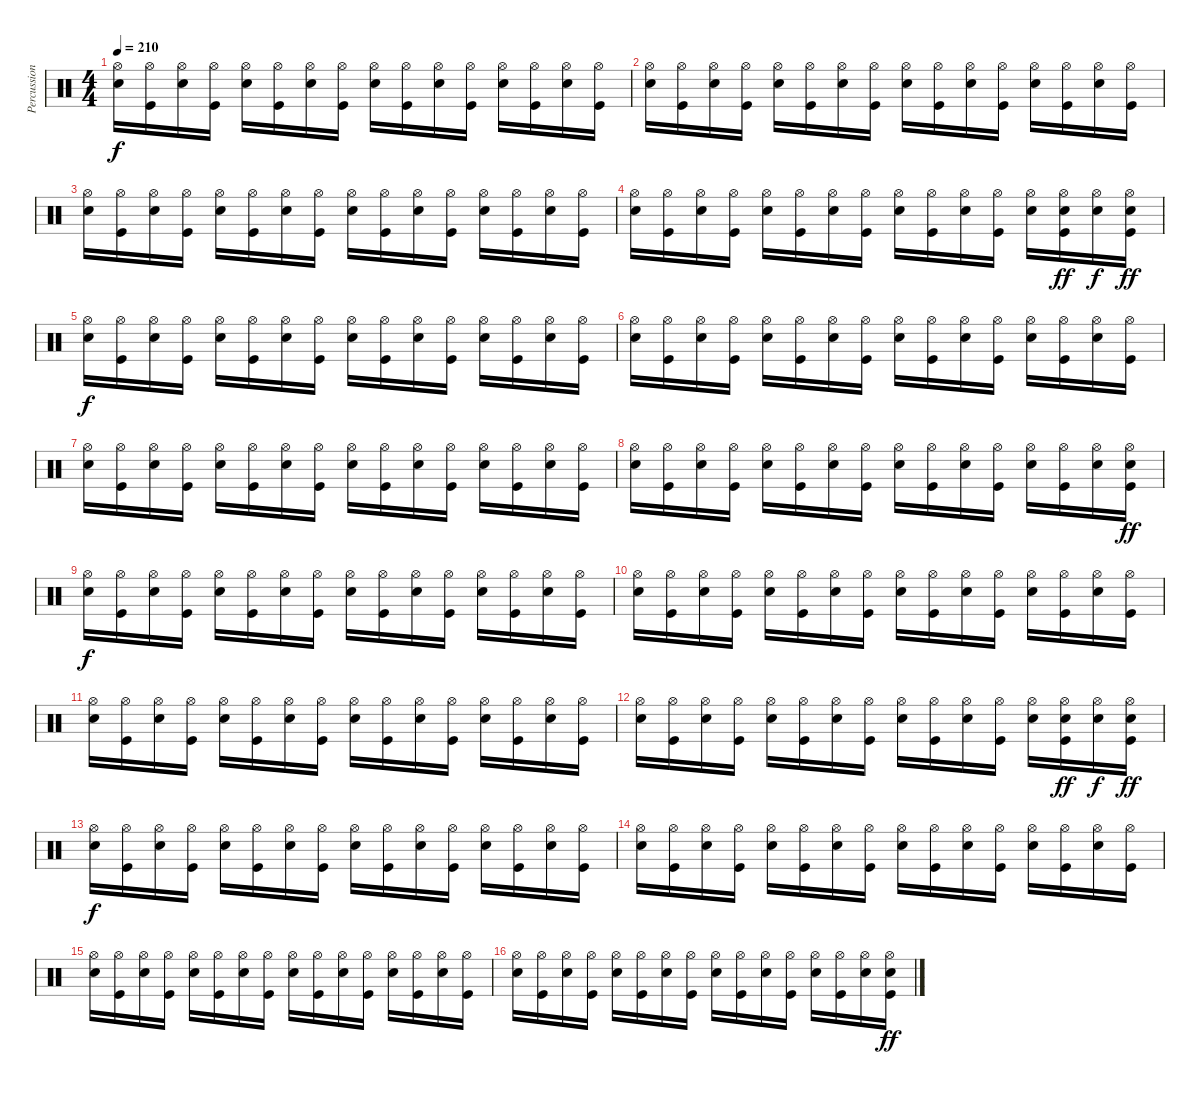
\track ("Percussion" "Percussion") {instrument percussion}
\staff {score}
\articulation defaults
\ts (4 4)
\tempo 210
\clef neutral
\ks c
("Hi-Hat (open)" "Snare (hit) 2").16{dy f} ("Hi-Hat (open)" "Kick (hit)").16 ("Hi-Hat (open)" "Snare (hit) 2").16 ("Hi-Hat (open)" "Kick (hit)").16 ("Hi-Hat (open)" "Snare (hit) 2").16 ("Hi-Hat (open)" "Kick (hit)").16 ("Hi-Hat (open)" "Snare (hit) 2").16 ("Hi-Hat (open)" "Kick (hit)").16 ("Hi-Hat (open)" "Snare (hit) 2").16 ("Hi-Hat (open)" "Kick (hit)").16 ("Hi-Hat (open)" "Snare (hit) 2").16 ("Hi-Hat (open)" "Kick (hit)").16 ("Hi-Hat (open)" "Snare (hit) 2").16 ("Hi-Hat (open)" "Kick (hit)").16 ("Hi-Hat (open)" "Snare (hit) 2").16 ("Hi-Hat (open)" "Kick (hit)").16 |
("Hi-Hat (open)" "Snare (hit) 2").16 ("Hi-Hat (open)" "Kick (hit)").16 ("Hi-Hat (open)" "Snare (hit) 2").16 ("Hi-Hat (open)" "Kick (hit)").16 ("Hi-Hat (open)" "Snare (hit) 2").16 ("Hi-Hat (open)" "Kick (hit)").16 ("Hi-Hat (open)" "Snare (hit) 2").16 ("Hi-Hat (open)" "Kick (hit)").16 ("Hi-Hat (open)" "Snare (hit) 2").16 ("Hi-Hat (open)" "Kick (hit)").16 ("Hi-Hat (open)" "Snare (hit) 2").16 ("Hi-Hat (open)" "Kick (hit)").16 ("Hi-Hat (open)" "Snare (hit) 2").16 ("Hi-Hat (open)" "Kick (hit)").16 ("Hi-Hat (open)" "Snare (hit) 2").16 ("Hi-Hat (open)" "Kick (hit)").16 |
("Hi-Hat (open)" "Snare (hit) 2").16 ("Hi-Hat (open)" "Kick (hit)").16 ("Hi-Hat (open)" "Snare (hit) 2").16 ("Hi-Hat (open)" "Kick (hit)").16 ("Hi-Hat (open)" "Snare (hit) 2").16 ("Hi-Hat (open)" "Kick (hit)").16 ("Hi-Hat (open)" "Snare (hit) 2").16 ("Hi-Hat (open)" "Kick (hit)").16 ("Hi-Hat (open)" "Snare (hit) 2").16 ("Hi-Hat (open)" "Kick (hit)").16 ("Hi-Hat (open)" "Snare (hit) 2").16 ("Hi-Hat (open)" "Kick (hit)").16 ("Hi-Hat (open)" "Snare (hit) 2").16 ("Hi-Hat (open)" "Kick (hit)").16 ("Hi-Hat (open)" "Snare (hit) 2").16 ("Hi-Hat (open)" "Kick (hit)").16 |
("Hi-Hat (open)" "Snare (hit) 2").16 ("Hi-Hat (open)" "Kick (hit)").16 ("Hi-Hat (open)" "Snare (hit) 2").16 ("Hi-Hat (open)" "Kick (hit)").16 ("Hi-Hat (open)" "Snare (hit) 2").16 ("Hi-Hat (open)" "Kick (hit)").16 ("Hi-Hat (open)" "Snare (hit) 2").16 ("Hi-Hat (open)" "Kick (hit)").16 ("Hi-Hat (open)" "Snare (hit) 2").16 ("Hi-Hat (open)" "Kick (hit)").16 ("Hi-Hat (open)" "Snare (hit) 2").16 ("Hi-Hat (open)" "Kick (hit)").16 ("Hi-Hat (open)" "Snare (hit) 2").16 ("Snare (hit) 2" "Hi-Hat (open)" "Kick (hit)").16{dy ff} ("Hi-Hat (open)" "Snare (hit) 2").16{dy f} ("Snare (hit) 2" "Hi-Hat (open)" "Kick (hit)").16{dy ff} |
("Hi-Hat (open)" "Snare (hit) 2").16{dy f} ("Hi-Hat (open)" "Kick (hit)").16 ("Hi-Hat (open)" "Snare (hit) 2").16 ("Hi-Hat (open)" "Kick (hit)").16 ("Hi-Hat (open)" "Snare (hit) 2").16 ("Hi-Hat (open)" "Kick (hit)").16 ("Hi-Hat (open)" "Snare (hit) 2").16 ("Hi-Hat (open)" "Kick (hit)").16 ("Hi-Hat (open)" "Snare (hit) 2").16 ("Hi-Hat (open)" "Kick (hit)").16 ("Hi-Hat (open)" "Snare (hit) 2").16 ("Hi-Hat (open)" "Kick (hit)").16 ("Hi-Hat (open)" "Snare (hit) 2").16 ("Hi-Hat (open)" "Kick (hit)").16 ("Hi-Hat (open)" "Snare (hit) 2").16 ("Hi-Hat (open)" "Kick (hit)").16 |
("Hi-Hat (open)" "Snare (hit) 2").16 ("Hi-Hat (open)" "Kick (hit)").16 ("Hi-Hat (open)" "Snare (hit) 2").16 ("Hi-Hat (open)" "Kick (hit)").16 ("Hi-Hat (open)" "Snare (hit) 2").16 ("Hi-Hat (open)" "Kick (hit)").16 ("Hi-Hat (open)" "Snare (hit) 2").16 ("Hi-Hat (open)" "Kick (hit)").16 ("Hi-Hat (open)" "Snare (hit) 2").16 ("Hi-Hat (open)" "Kick (hit)").16 ("Hi-Hat (open)" "Snare (hit) 2").16 ("Hi-Hat (open)" "Kick (hit)").16 ("Hi-Hat (open)" "Snare (hit) 2").16 ("Hi-Hat (open)" "Kick (hit)").16 ("Hi-Hat (open)" "Snare (hit) 2").16 ("Hi-Hat (open)" "Kick (hit)").16 |
("Hi-Hat (open)" "Snare (hit) 2").16 ("Hi-Hat (open)" "Kick (hit)").16 ("Hi-Hat (open)" "Snare (hit) 2").16 ("Hi-Hat (open)" "Kick (hit)").16 ("Hi-Hat (open)" "Snare (hit) 2").16 ("Hi-Hat (open)" "Kick (hit)").16 ("Hi-Hat (open)" "Snare (hit) 2").16 ("Hi-Hat (open)" "Kick (hit)").16 ("Hi-Hat (open)" "Snare (hit) 2").16 ("Hi-Hat (open)" "Kick (hit)").16 ("Hi-Hat (open)" "Snare (hit) 2").16 ("Hi-Hat (open)" "Kick (hit)").16 ("Hi-Hat (open)" "Snare (hit) 2").16 ("Hi-Hat (open)" "Kick (hit)").16 ("Hi-Hat (open)" "Snare (hit) 2").16 ("Hi-Hat (open)" "Kick (hit)").16 |
("Hi-Hat (open)" "Snare (hit) 2").16 ("Hi-Hat (open)" "Kick (hit)").16 ("Hi-Hat (open)" "Snare (hit) 2").16 ("Hi-Hat (open)" "Kick (hit)").16 ("Hi-Hat (open)" "Snare (hit) 2").16 ("Hi-Hat (open)" "Kick (hit)").16 ("Hi-Hat (open)" "Snare (hit) 2").16 ("Hi-Hat (open)" "Kick (hit)").16 ("Hi-Hat (open)" "Snare (hit) 2").16 ("Hi-Hat (open)" "Kick (hit)").16 ("Hi-Hat (open)" "Snare (hit) 2").16 ("Hi-Hat (open)" "Kick (hit)").16 ("Hi-Hat (open)" "Snare (hit) 2").16 ("Hi-Hat (open)" "Kick (hit)").16 ("Hi-Hat (open)" "Snare (hit) 2").16 ("Snare (hit) 2" "Hi-Hat (open)" "Kick (hit)").16{dy ff} |
("Hi-Hat (open)" "Snare (hit) 2").16{dy f} ("Hi-Hat (open)" "Kick (hit)").16 ("Hi-Hat (open)" "Snare (hit) 2").16 ("Hi-Hat (open)" "Kick (hit)").16 ("Hi-Hat (open)" "Snare (hit) 2").16 ("Hi-Hat (open)" "Kick (hit)").16 ("Hi-Hat (open)" "Snare (hit) 2").16 ("Hi-Hat (open)" "Kick (hit)").16 ("Hi-Hat (open)" "Snare (hit) 2").16 ("Hi-Hat (open)" "Kick (hit)").16 ("Hi-Hat (open)" "Snare (hit) 2").16 ("Hi-Hat (open)" "Kick (hit)").16 ("Hi-Hat (open)" "Snare (hit) 2").16 ("Hi-Hat (open)" "Kick (hit)").16 ("Hi-Hat (open)" "Snare (hit) 2").16 ("Hi-Hat (open)" "Kick (hit)").16 |
("Hi-Hat (open)" "Snare (hit) 2").16 ("Hi-Hat (open)" "Kick (hit)").16 ("Hi-Hat (open)" "Snare (hit) 2").16 ("Hi-Hat (open)" "Kick (hit)").16 ("Hi-Hat (open)" "Snare (hit) 2").16 ("Hi-Hat (open)" "Kick (hit)").16 ("Hi-Hat (open)" "Snare (hit) 2").16 ("Hi-Hat (open)" "Kick (hit)").16 ("Hi-Hat (open)" "Snare (hit) 2").16 ("Hi-Hat (open)" "Kick (hit)").16 ("Hi-Hat (open)" "Snare (hit) 2").16 ("Hi-Hat (open)" "Kick (hit)").16 ("Hi-Hat (open)" "Snare (hit) 2").16 ("Hi-Hat (open)" "Kick (hit)").16 ("Hi-Hat (open)" "Snare (hit) 2").16 ("Hi-Hat (open)" "Kick (hit)").16 |
("Hi-Hat (open)" "Snare (hit) 2").16 ("Hi-Hat (open)" "Kick (hit)").16 ("Hi-Hat (open)" "Snare (hit) 2").16 ("Hi-Hat (open)" "Kick (hit)").16 ("Hi-Hat (open)" "Snare (hit) 2").16 ("Hi-Hat (open)" "Kick (hit)").16 ("Hi-Hat (open)" "Snare (hit) 2").16 ("Hi-Hat (open)" "Kick (hit)").16 ("Hi-Hat (open)" "Snare (hit) 2").16 ("Hi-Hat (open)" "Kick (hit)").16 ("Hi-Hat (open)" "Snare (hit) 2").16 ("Hi-Hat (open)" "Kick (hit)").16 ("Hi-Hat (open)" "Snare (hit) 2").16 ("Hi-Hat (open)" "Kick (hit)").16 ("Hi-Hat (open)" "Snare (hit) 2").16 ("Hi-Hat (open)" "Kick (hit)").16 |
("Hi-Hat (open)" "Snare (hit) 2").16 ("Hi-Hat (open)" "Kick (hit)").16 ("Hi-Hat (open)" "Snare (hit) 2").16 ("Hi-Hat (open)" "Kick (hit)").16 ("Hi-Hat (open)" "Snare (hit) 2").16 ("Hi-Hat (open)" "Kick (hit)").16 ("Hi-Hat (open)" "Snare (hit) 2").16 ("Hi-Hat (open)" "Kick (hit)").16 ("Hi-Hat (open)" "Snare (hit) 2").16 ("Hi-Hat (open)" "Kick (hit)").16 ("Hi-Hat (open)" "Snare (hit) 2").16 ("Hi-Hat (open)" "Kick (hit)").16 ("Hi-Hat (open)" "Snare (hit) 2").16 ("Snare (hit) 2" "Hi-Hat (open)" "Kick (hit)").16{dy ff} ("Hi-Hat (open)" "Snare (hit) 2").16{dy f} ("Snare (hit) 2" "Hi-Hat (open)" "Kick (hit)").16{dy ff} |
("Hi-Hat (open)" "Snare (hit) 2").16{dy f} ("Hi-Hat (open)" "Kick (hit)").16 ("Hi-Hat (open)" "Snare (hit) 2").16 ("Hi-Hat (open)" "Kick (hit)").16 ("Hi-Hat (open)" "Snare (hit) 2").16 ("Hi-Hat (open)" "Kick (hit)").16 ("Hi-Hat (open)" "Snare (hit) 2").16 ("Hi-Hat (open)" "Kick (hit)").16 ("Hi-Hat (open)" "Snare (hit) 2").16 ("Hi-Hat (open)" "Kick (hit)").16 ("Hi-Hat (open)" "Snare (hit) 2").16 ("Hi-Hat (open)" "Kick (hit)").16 ("Hi-Hat (open)" "Snare (hit) 2").16 ("Hi-Hat (open)" "Kick (hit)").16 ("Hi-Hat (open)" "Snare (hit) 2").16 ("Hi-Hat (open)" "Kick (hit)").16 |
("Hi-Hat (open)" "Snare (hit) 2").16 ("Hi-Hat (open)" "Kick (hit)").16 ("Hi-Hat (open)" "Snare (hit) 2").16 ("Hi-Hat (open)" "Kick (hit)").16 ("Hi-Hat (open)" "Snare (hit) 2").16 ("Hi-Hat (open)" "Kick (hit)").16 ("Hi-Hat (open)" "Snare (hit) 2").16 ("Hi-Hat (open)" "Kick (hit)").16 ("Hi-Hat (open)" "Snare (hit) 2").16 ("Hi-Hat (open)" "Kick (hit)").16 ("Hi-Hat (open)" "Snare (hit) 2").16 ("Hi-Hat (open)" "Kick (hit)").16 ("Hi-Hat (open)" "Snare (hit) 2").16 ("Hi-Hat (open)" "Kick (hit)").16 ("Hi-Hat (open)" "Snare (hit) 2").16 ("Hi-Hat (open)" "Kick (hit)").16 |
("Hi-Hat (open)" "Snare (hit) 2").16 ("Hi-Hat (open)" "Kick (hit)").16 ("Hi-Hat (open)" "Snare (hit) 2").16 ("Hi-Hat (open)" "Kick (hit)").16 ("Hi-Hat (open)" "Snare (hit) 2").16 ("Hi-Hat (open)" "Kick (hit)").16 ("Hi-Hat (open)" "Snare (hit) 2").16 ("Hi-Hat (open)" "Kick (hit)").16 ("Hi-Hat (open)" "Snare (hit) 2").16 ("Hi-Hat (open)" "Kick (hit)").16 ("Hi-Hat (open)" "Snare (hit) 2").16 ("Hi-Hat (open)" "Kick (hit)").16 ("Hi-Hat (open)" "Snare (hit) 2").16 ("Hi-Hat (open)" "Kick (hit)").16 ("Hi-Hat (open)" "Snare (hit) 2").16 ("Hi-Hat (open)" "Kick (hit)").16 |
("Hi-Hat (open)" "Snare (hit) 2").16 ("Hi-Hat (open)" "Kick (hit)").16 ("Hi-Hat (open)" "Snare (hit) 2").16 ("Hi-Hat (open)" "Kick (hit)").16 ("Hi-Hat (open)" "Snare (hit) 2").16 ("Hi-Hat (open)" "Kick (hit)").16 ("Hi-Hat (open)" "Snare (hit) 2").16 ("Hi-Hat (open)" "Kick (hit)").16 ("Hi-Hat (open)" "Snare (hit) 2").16 ("Hi-Hat (open)" "Kick (hit)").16 ("Hi-Hat (open)" "Snare (hit) 2").16 ("Hi-Hat (open)" "Kick (hit)").16 ("Hi-Hat (open)" "Snare (hit) 2").16 ("Hi-Hat (open)" "Kick (hit)").16 ("Hi-Hat (open)" "Snare (hit) 2").16 ("Snare (hit) 2" "Hi-Hat (open)" "Kick (hit)").16{dy ff}
